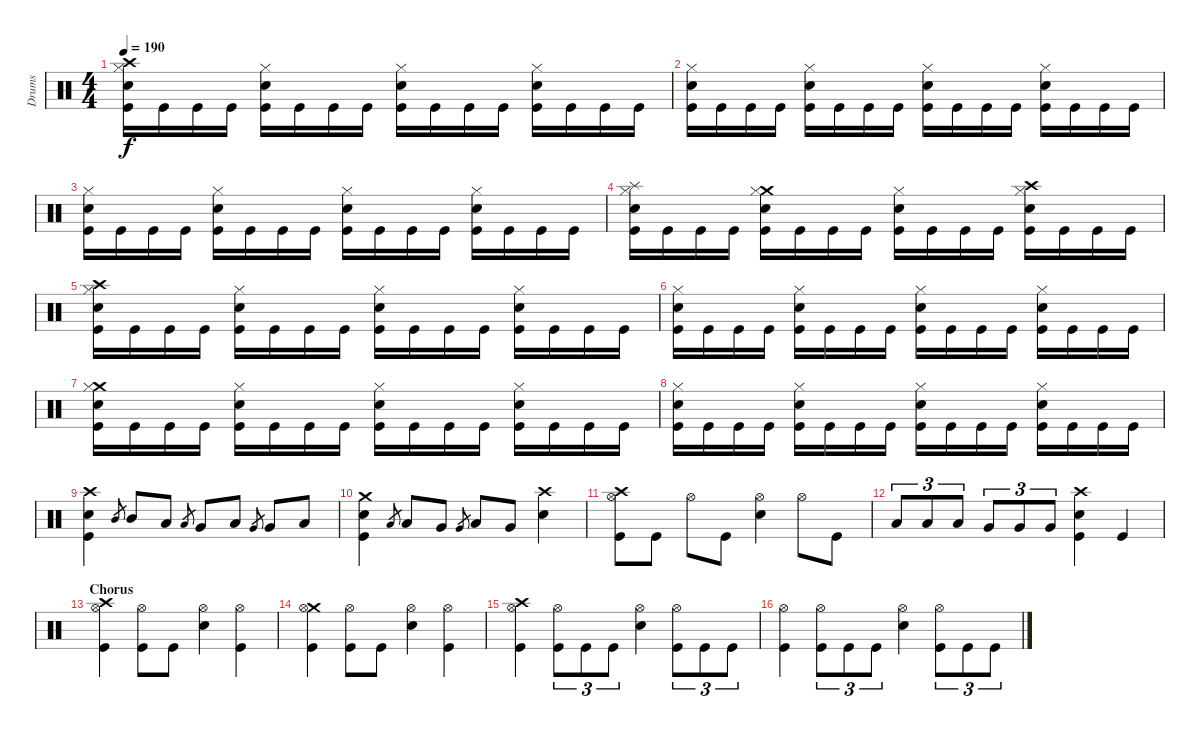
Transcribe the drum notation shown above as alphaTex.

\track ("Drums" "Drums") {instrument percussion}
\staff {score}
\articulation defaults
\ts (4 4)
\tempo 190
\clef neutral
\ks c
("Crash high (hit)" "Hi-Hat (closed)" "Snare (hit) 2" "Kick (hit)").16{dy f} "Kick (hit)".16 "Kick (hit)".16 "Kick (hit)".16 ("Hi-Hat (closed)" "Snare (hit) 2" "Kick (hit)").16 "Kick (hit)".16 "Kick (hit)".16 "Kick (hit)".16 ("Hi-Hat (closed)" "Snare (hit) 2" "Kick (hit)").16 "Kick (hit)".16 "Kick (hit)".16 "Kick (hit)".16 ("Hi-Hat (closed)" "Snare (hit) 2" "Kick (hit)").16 "Kick (hit)".16 "Kick (hit)".16 "Kick (hit)".16 |
("Hi-Hat (closed)" "Snare (hit) 2" "Kick (hit)").16 "Kick (hit)".16 "Kick (hit)".16 "Kick (hit)".16 ("Hi-Hat (closed)" "Snare (hit) 2" "Kick (hit)").16 "Kick (hit)".16 "Kick (hit)".16 "Kick (hit)".16 ("Hi-Hat (closed)" "Snare (hit) 2" "Kick (hit)").16 "Kick (hit)".16 "Kick (hit)".16 "Kick (hit)".16 ("Hi-Hat (closed)" "Snare (hit) 2" "Kick (hit)").16 "Kick (hit)".16 "Kick (hit)".16 "Kick (hit)".16 |
("Hi-Hat (closed)" "Snare (hit) 2" "Kick (hit)").16 "Kick (hit)".16 "Kick (hit)".16 "Kick (hit)".16 ("Hi-Hat (closed)" "Snare (hit) 2" "Kick (hit)").16 "Kick (hit)".16 "Kick (hit)".16 "Kick (hit)".16 ("Hi-Hat (closed)" "Snare (hit) 2" "Kick (hit)").16 "Kick (hit)".16 "Kick (hit)".16 "Kick (hit)".16 ("Hi-Hat (closed)" "Snare (hit) 2" "Kick (hit)").16 "Kick (hit)".16 "Kick (hit)".16 "Kick (hit)".16 |
("Splash (hit)" "Hi-Hat (closed)" "Snare (hit) 2" "Kick (hit)").16 "Kick (hit)".16 "Kick (hit)".16 "Kick (hit)".16 ("Crash medium (hit)" "Hi-Hat (closed)" "Snare (hit) 2" "Kick (hit)").16 "Kick (hit)".16 "Kick (hit)".16 "Kick (hit)".16 ("Hi-Hat (closed)" "Snare (hit) 2" "Kick (hit)").16 "Kick (hit)".16 "Kick (hit)".16 "Kick (hit)".16 ("Crash high (hit)" "Hi-Hat (closed)" "Snare (hit) 2" "Kick (hit)").16 "Kick (hit)".16 "Kick (hit)".16 "Kick (hit)".16 |
("Crash high (hit)" "Hi-Hat (closed)" "Snare (hit) 2" "Kick (hit)").16 "Kick (hit)".16 "Kick (hit)".16 "Kick (hit)".16 ("Hi-Hat (closed)" "Snare (hit) 2" "Kick (hit)").16 "Kick (hit)".16 "Kick (hit)".16 "Kick (hit)".16 ("Hi-Hat (closed)" "Snare (hit) 2" "Kick (hit)").16 "Kick (hit)".16 "Kick (hit)".16 "Kick (hit)".16 ("Hi-Hat (closed)" "Snare (hit) 2" "Kick (hit)").16 "Kick (hit)".16 "Kick (hit)".16 "Kick (hit)".16 |
("Hi-Hat (closed)" "Snare (hit) 2" "Kick (hit)").16 "Kick (hit)".16 "Kick (hit)".16 "Kick (hit)".16 ("Hi-Hat (closed)" "Snare (hit) 2" "Kick (hit)").16 "Kick (hit)".16 "Kick (hit)".16 "Kick (hit)".16 ("Hi-Hat (closed)" "Snare (hit) 2" "Kick (hit)").16 "Kick (hit)".16 "Kick (hit)".16 "Kick (hit)".16 ("Hi-Hat (closed)" "Snare (hit) 2" "Kick (hit)").16 "Kick (hit)".16 "Kick (hit)".16 "Kick (hit)".16 |
("Crash medium (hit)" "Hi-Hat (closed)" "Snare (hit) 2" "Kick (hit)").16 "Kick (hit)".16 "Kick (hit)".16 "Kick (hit)".16 ("Hi-Hat (closed)" "Snare (hit) 2" "Kick (hit)").16 "Kick (hit)".16 "Kick (hit)".16 "Kick (hit)".16 ("Hi-Hat (closed)" "Snare (hit) 2" "Kick (hit)").16 "Kick (hit)".16 "Kick (hit)".16 "Kick (hit)".16 ("Hi-Hat (closed)" "Snare (hit) 2" "Kick (hit)").16 "Kick (hit)".16 "Kick (hit)".16 "Kick (hit)".16 |
("Hi-Hat (closed)" "Snare (hit) 2" "Kick (hit)").16 "Kick (hit)".16 "Kick (hit)".16 "Kick (hit)".16 ("Hi-Hat (closed)" "Snare (hit) 2" "Kick (hit)").16 "Kick (hit)".16 "Kick (hit)".16 "Kick (hit)".16 ("Hi-Hat (closed)" "Snare (hit) 2" "Kick (hit)").16 "Kick (hit)".16 "Kick (hit)".16 "Kick (hit)".16 ("Hi-Hat (closed)" "Snare (hit) 2" "Kick (hit)").16 "Kick (hit)".16 "Kick (hit)".16 "Kick (hit)".16 |
("Crash high (hit)" "Snare (hit) 2" "Kick (hit)").4 "Mid Tom (hit)".8{gr} "Mid Tom (hit)".8 "Low Tom (hit)".8 "Low Tom (hit)".8{gr} "Very Low Tom (hit)".8 "Low Tom (hit)".8 "Very Low Tom (hit)".8{gr} "Very Low Tom (hit)".8 "Low Floor Tom (hit)".8 |
("Crash medium (hit)" "Snare (hit) 2" "Kick (hit)").4 "Low Tom (hit)".8{gr} "Low Tom (hit)".8 "Very Low Tom (hit)".8 "Very Low Tom (hit)".8{gr} "Low Floor Tom (hit)".8 "Very Low Tom (hit)".8 ("Crash high (hit)" "Snare (hit) 2").4 |
("Crash high (hit)" "Hi-Hat (open)" "Kick (hit)").8 "Kick (hit)".8 "Hi-Hat (open)".8 "Kick (hit)".8 ("Hi-Hat (open)" "Snare (hit) 2").4 "Hi-Hat (open)".8 "Kick (hit)".8 |
"Low Tom (hit)".8{tu (3 2)} "Low Tom (hit)".8{tu (3 2)} "Low Tom (hit)".8{tu (3 2)} "Very Low Tom (hit)".8{tu (3 2)} "Very Low Tom (hit)".8{tu (3 2)} "Very Low Tom (hit)".8{tu (3 2)} ("Crash high (hit)" "Snare (hit) 2" "Kick (hit)").4 "Kick (hit)".4 |
\section ("" "Chorus")
("Crash high (hit)" "Hi-Hat (open)" "Kick (hit)").4 ("Hi-Hat (open)" "Kick (hit)").8 "Kick (hit)".8 ("Hi-Hat (open)" "Snare (hit) 2").4 ("Hi-Hat (open)" "Kick (hit)").4 |
("Crash medium (hit)" "Hi-Hat (open)" "Kick (hit)").4 ("Hi-Hat (open)" "Kick (hit)").8 "Kick (hit)".8 ("Hi-Hat (open)" "Snare (hit) 2").4 ("Hi-Hat (open)" "Kick (hit)").4 |
("Crash high (hit)" "Hi-Hat (open)" "Kick (hit)").4 ("Hi-Hat (open)" "Kick (hit)").8{tu (3 2)} "Kick (hit)".8{tu (3 2)} "Kick (hit)".8{tu (3 2)} ("Hi-Hat (open)" "Snare (hit) 2").4 ("Hi-Hat (open)" "Kick (hit)").8{tu (3 2)} "Kick (hit)".8{tu (3 2)} "Kick (hit)".8{tu (3 2)} |
("Hi-Hat (open)" "Kick (hit)").4 ("Hi-Hat (open)" "Kick (hit)").8{tu (3 2)} "Kick (hit)".8{tu (3 2)} "Kick (hit)".8{tu (3 2)} ("Hi-Hat (open)" "Snare (hit) 2").4 ("Hi-Hat (open)" "Kick (hit)").8{tu (3 2)} "Kick (hit)".8{tu (3 2)} "Kick (hit)".8{tu (3 2)}
